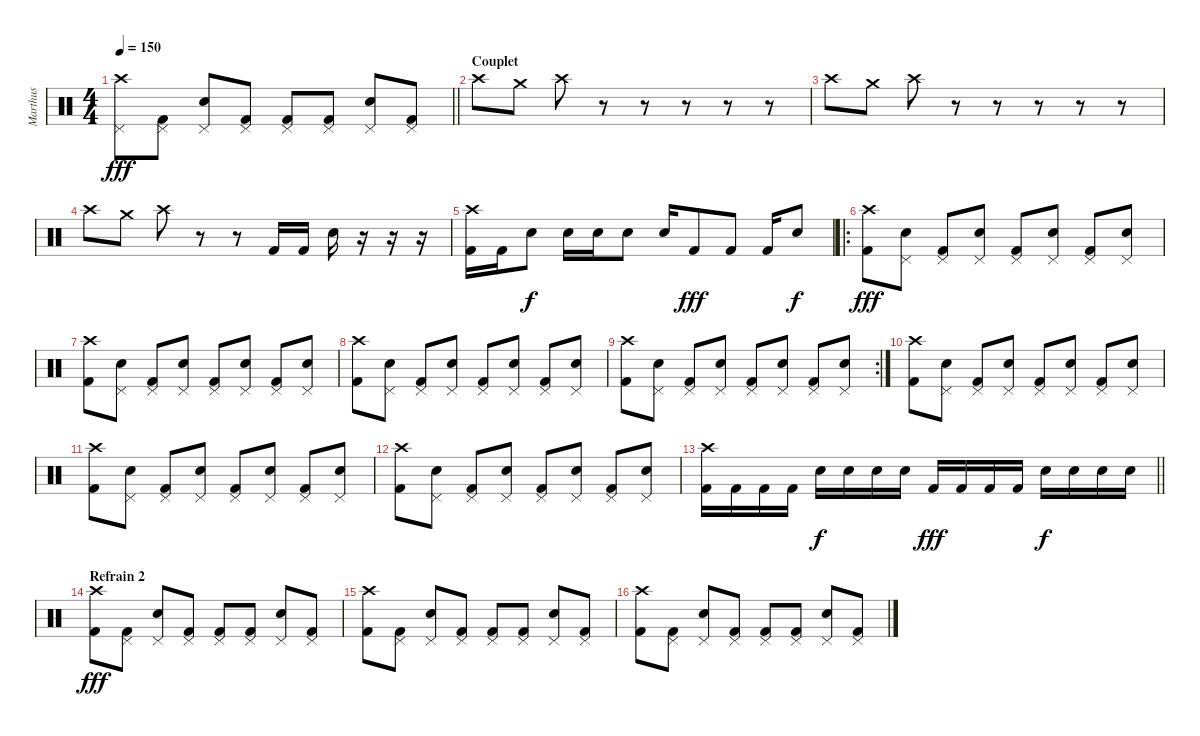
\track ("Marthus" "Marthus") {instrument percussion}
\staff {score}
\articulation defaults
\ts (4 4)
\tempo 150
\clef neutral
\barLineRight lightlight
\ks c
("Crash high (hit)" "Pedal Hi-Hat (hit)").8{dy fff} ("Kick (hit) 2" "Pedal Hi-Hat (hit)").8 ("Electric Snare (hit)" "Pedal Hi-Hat (hit)").8 ("Kick (hit) 2" "Pedal Hi-Hat (hit)").8 ("Kick (hit) 2" "Pedal Hi-Hat (hit)").8 ("Kick (hit) 2" "Pedal Hi-Hat (hit)").8 ("Electric Snare (hit)" "Pedal Hi-Hat (hit)").8 ("Kick (hit) 2" "Pedal Hi-Hat (hit)").8 |
\section ("" "Couplet")
"Crash high (hit)".8 "Crash medium (hit)".8 "Crash high (hit)".8 r.8 r.8 r.8 r.8 r.8 |
"Crash high (hit)".8 "Crash medium (hit)".8 "Crash high (hit)".8 r.8 r.8 r.8 r.8 r.8 |
"Crash high (hit)".8 "Crash medium (hit)".8 "Crash high (hit)".8 r.8 r.8 "Kick (hit) 2".16 "Kick (hit) 2".16 "Electric Snare (hit)".16 r.16 r.16 r.16 |
("Kick (hit) 2" "Crash high (hit)").16 "Kick (hit) 2".16 "Electric Snare (hit)".8{dy f} "Electric Snare (hit)".16 "Electric Snare (hit)".16 "Electric Snare (hit)".8 "Electric Snare (hit)".16 "Kick (hit) 2".8{dy fff} "Kick (hit) 2".8 "Kick (hit) 2".16 "Electric Snare (hit)".8{dy f} |
\ro
("Kick (hit) 2" "Crash high (hit)").8{dy fff} ("Electric Snare (hit)" "Pedal Hi-Hat (hit)").8 ("Kick (hit) 2" "Pedal Hi-Hat (hit)").8 ("Electric Snare (hit)" "Pedal Hi-Hat (hit)").8 ("Kick (hit) 2" "Pedal Hi-Hat (hit)").8 ("Electric Snare (hit)" "Pedal Hi-Hat (hit)").8 ("Kick (hit) 2" "Pedal Hi-Hat (hit)").8 ("Electric Snare (hit)" "Pedal Hi-Hat (hit)").8 |
("Kick (hit) 2" "Crash high (hit)").8 ("Electric Snare (hit)" "Pedal Hi-Hat (hit)").8 ("Kick (hit) 2" "Pedal Hi-Hat (hit)").8 ("Electric Snare (hit)" "Pedal Hi-Hat (hit)").8 ("Kick (hit) 2" "Pedal Hi-Hat (hit)").8 ("Electric Snare (hit)" "Pedal Hi-Hat (hit)").8 ("Kick (hit) 2" "Pedal Hi-Hat (hit)").8 ("Electric Snare (hit)" "Pedal Hi-Hat (hit)").8 |
("Kick (hit) 2" "Crash high (hit)").8 ("Electric Snare (hit)" "Pedal Hi-Hat (hit)").8 ("Kick (hit) 2" "Pedal Hi-Hat (hit)").8 ("Electric Snare (hit)" "Pedal Hi-Hat (hit)").8 ("Kick (hit) 2" "Pedal Hi-Hat (hit)").8 ("Electric Snare (hit)" "Pedal Hi-Hat (hit)").8 ("Kick (hit) 2" "Pedal Hi-Hat (hit)").8 ("Electric Snare (hit)" "Pedal Hi-Hat (hit)").8 |
\rc 2
("Kick (hit) 2" "Crash high (hit)").8 ("Electric Snare (hit)" "Pedal Hi-Hat (hit)").8 ("Kick (hit) 2" "Pedal Hi-Hat (hit)").8 ("Electric Snare (hit)" "Pedal Hi-Hat (hit)").8 ("Kick (hit) 2" "Pedal Hi-Hat (hit)").8 ("Electric Snare (hit)" "Pedal Hi-Hat (hit)").8 ("Kick (hit) 2" "Pedal Hi-Hat (hit)").8 ("Electric Snare (hit)" "Pedal Hi-Hat (hit)").8 |
("Kick (hit) 2" "Crash high (hit)").8 ("Electric Snare (hit)" "Pedal Hi-Hat (hit)").8 ("Kick (hit) 2" "Pedal Hi-Hat (hit)").8 ("Electric Snare (hit)" "Pedal Hi-Hat (hit)").8 ("Kick (hit) 2" "Pedal Hi-Hat (hit)").8 ("Electric Snare (hit)" "Pedal Hi-Hat (hit)").8 ("Kick (hit) 2" "Pedal Hi-Hat (hit)").8 ("Electric Snare (hit)" "Pedal Hi-Hat (hit)").8 |
("Kick (hit) 2" "Crash high (hit)").8 ("Electric Snare (hit)" "Pedal Hi-Hat (hit)").8 ("Kick (hit) 2" "Pedal Hi-Hat (hit)").8 ("Electric Snare (hit)" "Pedal Hi-Hat (hit)").8 ("Kick (hit) 2" "Pedal Hi-Hat (hit)").8 ("Electric Snare (hit)" "Pedal Hi-Hat (hit)").8 ("Kick (hit) 2" "Pedal Hi-Hat (hit)").8 ("Electric Snare (hit)" "Pedal Hi-Hat (hit)").8 |
("Kick (hit) 2" "Crash high (hit)").8 ("Electric Snare (hit)" "Pedal Hi-Hat (hit)").8 ("Kick (hit) 2" "Pedal Hi-Hat (hit)").8 ("Electric Snare (hit)" "Pedal Hi-Hat (hit)").8 ("Kick (hit) 2" "Pedal Hi-Hat (hit)").8 ("Electric Snare (hit)" "Pedal Hi-Hat (hit)").8 ("Kick (hit) 2" "Pedal Hi-Hat (hit)").8 ("Electric Snare (hit)" "Pedal Hi-Hat (hit)").8 |
\barLineRight lightlight
("Kick (hit) 2" "Crash high (hit)").16 "Kick (hit) 2".16 "Kick (hit) 2".16 "Kick (hit) 2".16 "Electric Snare (hit)".16{dy f} "Electric Snare (hit)".16 "Electric Snare (hit)".16 "Electric Snare (hit)".16 "Kick (hit) 2".16{dy fff} "Kick (hit) 2".16 "Kick (hit) 2".16 "Kick (hit) 2".16 "Electric Snare (hit)".16{dy f} "Electric Snare (hit)".16 "Electric Snare (hit)".16 "Electric Snare (hit)".16 |
\section ("" "Refrain 2")
("Kick (hit) 2" "Crash high (hit)").8{dy fff} ("Kick (hit) 2" "Pedal Hi-Hat (hit)").8 ("Electric Snare (hit)" "Pedal Hi-Hat (hit)").8 ("Kick (hit) 2" "Pedal Hi-Hat (hit)").8 ("Kick (hit) 2" "Pedal Hi-Hat (hit)").8 ("Kick (hit) 2" "Pedal Hi-Hat (hit)").8 ("Electric Snare (hit)" "Pedal Hi-Hat (hit)").8 ("Kick (hit) 2" "Pedal Hi-Hat (hit)").8 |
("Kick (hit) 2" "Crash high (hit)").8 ("Kick (hit) 2" "Pedal Hi-Hat (hit)").8 ("Electric Snare (hit)" "Pedal Hi-Hat (hit)").8 ("Kick (hit) 2" "Pedal Hi-Hat (hit)").8 ("Kick (hit) 2" "Pedal Hi-Hat (hit)").8 ("Kick (hit) 2" "Pedal Hi-Hat (hit)").8 ("Electric Snare (hit)" "Pedal Hi-Hat (hit)").8 ("Kick (hit) 2" "Pedal Hi-Hat (hit)").8 |
("Kick (hit) 2" "Crash high (hit)").8 ("Kick (hit) 2" "Pedal Hi-Hat (hit)").8 ("Electric Snare (hit)" "Pedal Hi-Hat (hit)").8 ("Kick (hit) 2" "Pedal Hi-Hat (hit)").8 ("Kick (hit) 2" "Pedal Hi-Hat (hit)").8 ("Kick (hit) 2" "Pedal Hi-Hat (hit)").8 ("Electric Snare (hit)" "Pedal Hi-Hat (hit)").8 ("Kick (hit) 2" "Pedal Hi-Hat (hit)").8
